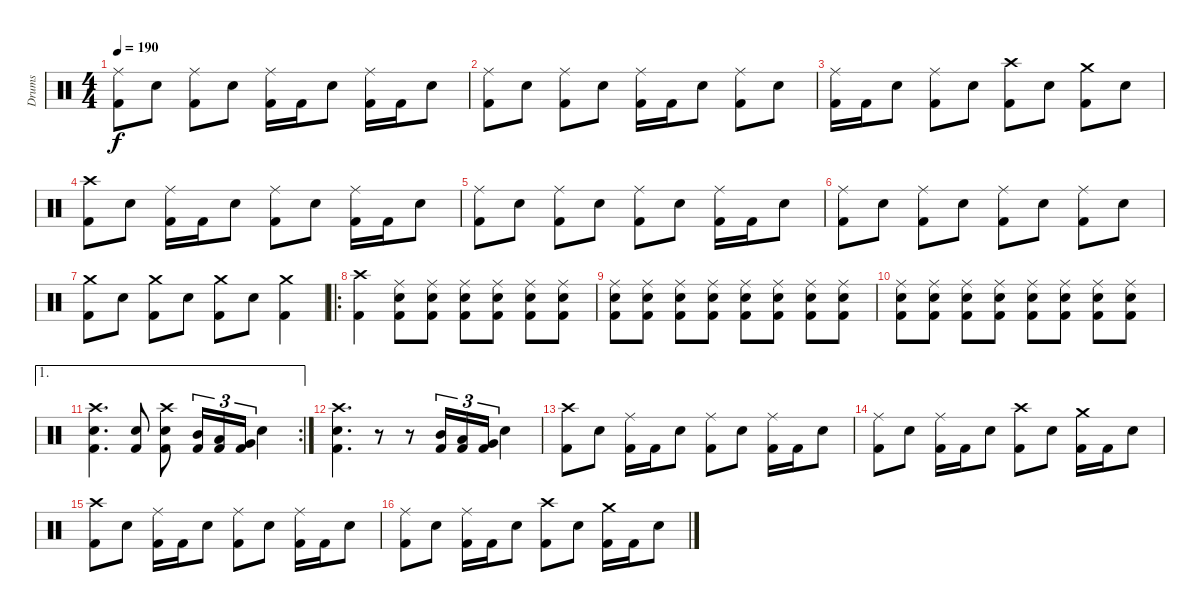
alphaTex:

\track ("Drums" "Drums") {instrument percussion}
\staff {score}
\articulation defaults
\ts (4 4)
\tempo 190
\clef neutral
\ks c
("Ride (middle)" "Kick (hit) 2").8{dy f} "Electric Snare (hit)".8 ("Ride (middle)" "Kick (hit) 2").8 "Electric Snare (hit)".8 ("Ride (middle)" "Kick (hit) 2").16 "Kick (hit) 2".16 "Electric Snare (hit)".8 ("Ride (middle)" "Kick (hit) 2").16 "Kick (hit) 2".16 "Electric Snare (hit)".8 |
("Ride (middle)" "Kick (hit) 2").8 "Electric Snare (hit)".8 ("Ride (middle)" "Kick (hit) 2").8 "Electric Snare (hit)".8 ("Ride (middle)" "Kick (hit) 2").16 "Kick (hit) 2".16 "Electric Snare (hit)".8 ("Ride (middle)" "Kick (hit) 2").8 "Electric Snare (hit)".8 |
("Ride (middle)" "Kick (hit) 2").16 "Kick (hit) 2".16 "Electric Snare (hit)".8 ("Ride (middle)" "Kick (hit) 2").8 "Electric Snare (hit)".8 ("Crash high (hit)" "Kick (hit) 2").8 "Electric Snare (hit)".8 ("Crash medium (hit)" "Kick (hit) 2").8 "Electric Snare (hit)".8 |
("Crash high (hit)" "Kick (hit) 2").8 "Electric Snare (hit)".8 ("Ride (middle)" "Kick (hit) 2").16 "Kick (hit) 2".16 "Electric Snare (hit)".8 ("Ride (middle)" "Kick (hit) 2").8 "Electric Snare (hit)".8 ("Ride (middle)" "Kick (hit) 2").16 "Kick (hit) 2".16 "Electric Snare (hit)".8 |
("Ride (middle)" "Kick (hit) 2").8 "Electric Snare (hit)".8 ("Ride (middle)" "Kick (hit) 2").8 "Electric Snare (hit)".8 ("Ride (middle)" "Kick (hit) 2").8 "Electric Snare (hit)".8 ("Ride (middle)" "Kick (hit) 2").16 "Kick (hit) 2".16 "Electric Snare (hit)".8 |
("Ride (middle)" "Kick (hit) 2").8 "Electric Snare (hit)".8 ("Ride (middle)" "Kick (hit) 2").8 "Electric Snare (hit)".8 ("Ride (middle)" "Kick (hit) 2").8 "Electric Snare (hit)".8 ("Ride (middle)" "Kick (hit) 2").8 "Electric Snare (hit)".8 |
("Crash medium (hit)" "Kick (hit) 2").8 "Electric Snare (hit)".8 ("Crash medium (hit)" "Kick (hit) 2").8 "Electric Snare (hit)".8 ("Crash medium (hit)" "Kick (hit) 2").8 "Electric Snare (hit)".8 ("Crash medium (hit)" "Kick (hit) 2").4 |
\ro
("Crash high (hit)" "Kick (hit) 2").4 ("Ride (middle)" "Electric Snare (hit)" "Kick (hit) 2").8 ("Ride (middle)" "Electric Snare (hit)" "Kick (hit) 2").8 ("Ride (middle)" "Electric Snare (hit)" "Kick (hit) 2").8 ("Ride (middle)" "Electric Snare (hit)" "Kick (hit) 2").8 ("Ride (middle)" "Electric Snare (hit)" "Kick (hit) 2").8 ("Ride (middle)" "Electric Snare (hit)" "Kick (hit) 2").8 |
("Ride (middle)" "Electric Snare (hit)" "Kick (hit) 2").8 ("Ride (middle)" "Electric Snare (hit)" "Kick (hit) 2").8 ("Ride (middle)" "Electric Snare (hit)" "Kick (hit) 2").8 ("Ride (middle)" "Electric Snare (hit)" "Kick (hit) 2").8 ("Ride (middle)" "Electric Snare (hit)" "Kick (hit) 2").8 ("Ride (middle)" "Electric Snare (hit)" "Kick (hit) 2").8 ("Ride (middle)" "Electric Snare (hit)" "Kick (hit) 2").8 ("Ride (middle)" "Electric Snare (hit)" "Kick (hit) 2").8 |
("Ride (middle)" "Electric Snare (hit)" "Kick (hit) 2").8 ("Ride (middle)" "Electric Snare (hit)" "Kick (hit) 2").8 ("Ride (middle)" "Electric Snare (hit)" "Kick (hit) 2").8 ("Ride (middle)" "Electric Snare (hit)" "Kick (hit) 2").8 ("Ride (middle)" "Electric Snare (hit)" "Kick (hit) 2").8 ("Ride (middle)" "Electric Snare (hit)" "Kick (hit) 2").8 ("Ride (middle)" "Electric Snare (hit)" "Kick (hit) 2").8 ("Ride (middle)" "Electric Snare (hit)" "Kick (hit) 2").8 |
\ae 1
\rc 2
("Crash high (hit)" "Electric Snare (hit)" "Kick (hit) 2").4{d} ("Electric Snare (hit)" "Kick (hit) 2").8 ("Crash high (hit)" "Electric Snare (hit)" "Kick (hit) 2").8 ("Mid Tom (hit)" "Kick (hit) 2").16{tu (3 2)} ("Low Tom (hit)" "Kick (hit) 2").16{tu (3 2)} ("Very Low Tom (hit)" "Kick (hit) 2").16{tu (3 2)} "Electric Snare (hit)".4 |
("Crash high (hit)" "Electric Snare (hit)" "Kick (hit) 2").4{d} r.8 r.8 ("Mid Tom (hit)" "Kick (hit) 2").16{tu (3 2)} ("Low Tom (hit)" "Kick (hit) 2").16{tu (3 2)} ("Very Low Tom (hit)" "Kick (hit) 2").16{tu (3 2)} "Electric Snare (hit)".4 |
("Crash high (hit)" "Kick (hit) 2").8 "Electric Snare (hit)".8 ("Ride (middle)" "Kick (hit) 2").16 "Kick (hit) 2".16 "Electric Snare (hit)".8 ("Ride (middle)" "Kick (hit) 2").8 "Electric Snare (hit)".8 ("Ride (middle)" "Kick (hit) 2").16 "Kick (hit) 2".16 "Electric Snare (hit)".8 |
("Ride (middle)" "Kick (hit) 2").8 "Electric Snare (hit)".8 ("Ride (middle)" "Kick (hit) 2").16 "Kick (hit) 2".16 "Electric Snare (hit)".8 ("Crash high (hit)" "Kick (hit) 2").8 "Electric Snare (hit)".8 ("Crash medium (hit)" "Kick (hit) 2").16 "Kick (hit) 2".16 "Electric Snare (hit)".8 |
("Crash high (hit)" "Kick (hit) 2").8 "Electric Snare (hit)".8 ("Ride (middle)" "Kick (hit) 2").16 "Kick (hit) 2".16 "Electric Snare (hit)".8 ("Ride (middle)" "Kick (hit) 2").8 "Electric Snare (hit)".8 ("Ride (middle)" "Kick (hit) 2").16 "Kick (hit) 2".16 "Electric Snare (hit)".8 |
("Ride (middle)" "Kick (hit) 2").8 "Electric Snare (hit)".8 ("Ride (middle)" "Kick (hit) 2").16 "Kick (hit) 2".16 "Electric Snare (hit)".8 ("Crash high (hit)" "Kick (hit) 2").8 "Electric Snare (hit)".8 ("Crash medium (hit)" "Kick (hit) 2").16 "Kick (hit) 2".16 "Electric Snare (hit)".8
